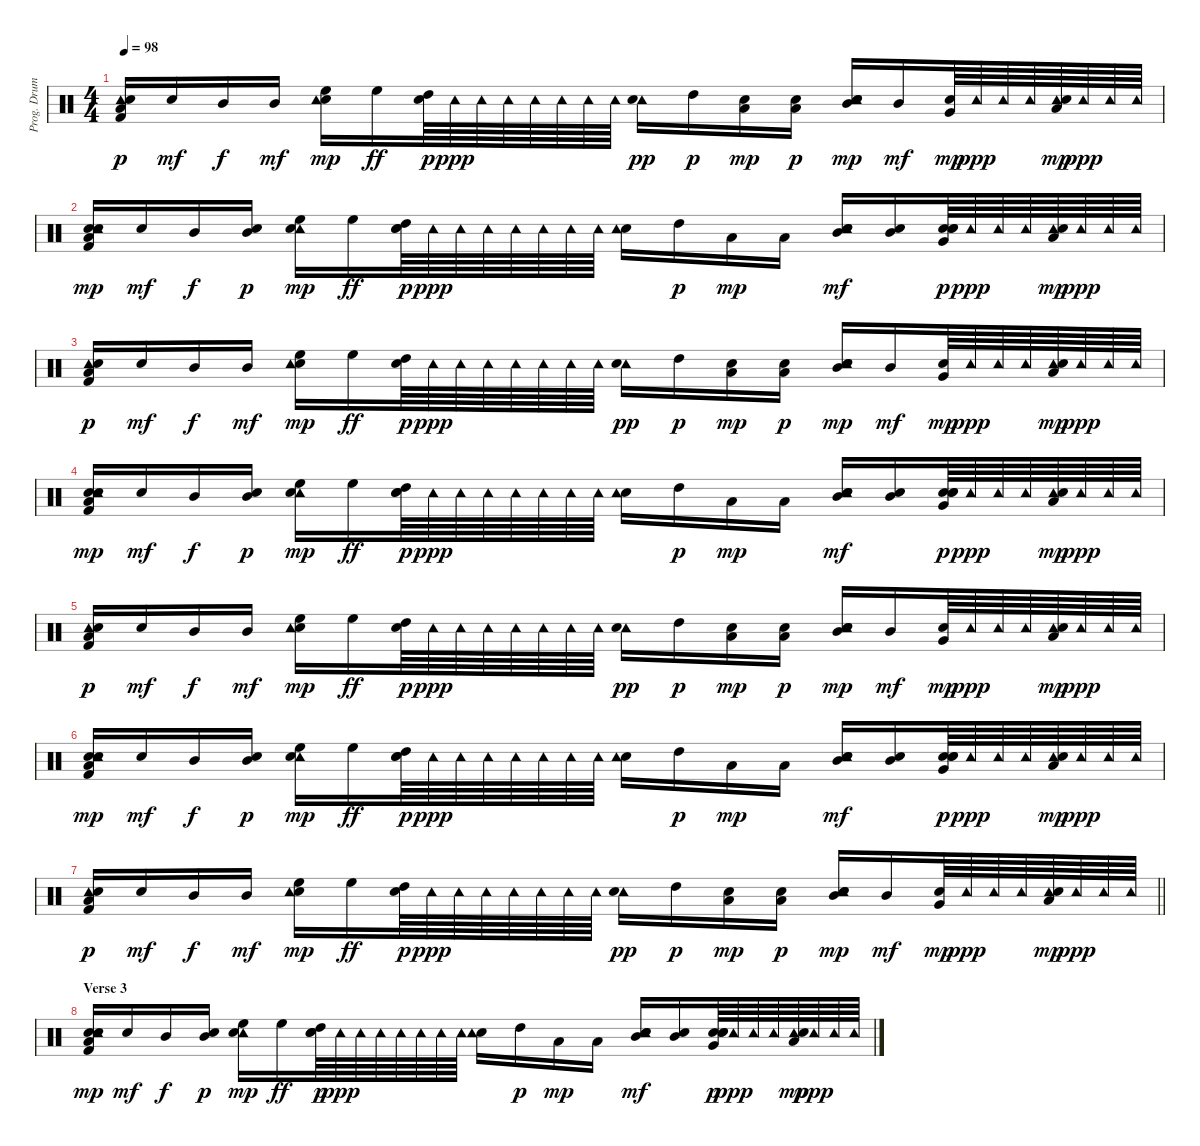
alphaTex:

\track ("Prog. Drums" "Prog. Drum") {instrument percussion}
\staff {score}
\articulation defaults
\ts (4 4)
\tempo 98
\clef neutral
\ks c
("Tambourine (hit)" "Snare (hit)" "Low Floor Tom (hit)" "Kick (hit) 2").16{dy p} "Snare (hit)".16{dy mf} "Mid Tom (hit)".16{dy f} "Mid Tom (hit)".16{dy mf} ("Snare (hit) 2" "High Floor Tom (hit)" "Tambourine (hit)").16{dy mp} "High Floor Tom (hit)".16{dy ff} ("High Tom (hit)" "Snare (hit)").64{dy p} "Tambourine (hit)".64{dy ppp} "Tambourine (hit)".64 "Tambourine (hit)".64 "Tambourine (hit)".64 "Tambourine (hit)".64 "Tambourine (hit)".64 "Tambourine (hit)".64 ("Tambourine (hit)" "Snare (hit) 2").16{dy pp} "High Tom (hit)".16{dy p} ("Snare (hit)" "Low Tom (hit)").16{dy mp} ("Low Tom (hit)" "Snare (hit)").16{dy p} ("Snare (hit) 2" "Mid Tom (hit)" "Snare (hit)" "Tambourine (hit)").16{dy mp} "Mid Tom (hit)".16{dy mf} ("Snare (hit)" "Very Low Tom (hit)").64{dy mp} "Tambourine (hit)".64{dy ppp} "Tambourine (hit)".64 "Tambourine (hit)".64 ("Tambourine (hit)" "Snare (hit) 2" "Low Tom (hit)").64{dy mp} "Tambourine (hit)".64{dy ppp} "Tambourine (hit)".64 "Tambourine (hit)".64 |
("Snare (hit)" "Snare (hit)" "Tambourine (hit)" "Kick (hit) 2" "Low Floor Tom (hit)").16{dy mp} "Snare (hit)".16{dy mf} "Mid Tom (hit)".16{dy f} ("Mid Tom (hit)" "Snare (hit)").16{dy p} ("Tambourine (hit)" "High Floor Tom (hit)" "Snare (hit) 2").16{dy mp} "High Floor Tom (hit)".16{dy ff} ("High Tom (hit)" "Snare (hit)" "Snare (hit)").64{dy p} "Tambourine (hit)".64{dy ppp} "Tambourine (hit)".64 "Tambourine (hit)".64 "Tambourine (hit)".64 "Tambourine (hit)".64 "Tambourine (hit)".64 "Tambourine (hit)".64 ("Snare (hit) 2" "Tambourine (hit)").16 "High Tom (hit)".16{dy p} "Low Tom (hit)".16{dy mp} "Low Tom (hit)".16 ("Tambourine (hit)" "Snare (hit)" "Snare (hit) 2" "Mid Tom (hit)").16{dy mf} ("Snare (hit) 2" "Mid Tom (hit)").16 ("Snare (hit) 2" "Very Low Tom (hit)" "Snare (hit)" "Snare (hit)").64{dy p} "Tambourine (hit)".64{dy ppp} "Tambourine (hit)".64 "Tambourine (hit)".64 ("Tambourine (hit)" "Snare (hit) 2" "Low Tom (hit)").64{dy mp} "Tambourine (hit)".64{dy ppp} "Tambourine (hit)".64 "Tambourine (hit)".64 |
("Tambourine (hit)" "Snare (hit)" "Low Floor Tom (hit)" "Kick (hit) 2").16{dy p} "Snare (hit)".16{dy mf} "Mid Tom (hit)".16{dy f} "Mid Tom (hit)".16{dy mf} ("Snare (hit) 2" "High Floor Tom (hit)" "Tambourine (hit)").16{dy mp} "High Floor Tom (hit)".16{dy ff} ("High Tom (hit)" "Snare (hit)").64{dy p} "Tambourine (hit)".64{dy ppp} "Tambourine (hit)".64 "Tambourine (hit)".64 "Tambourine (hit)".64 "Tambourine (hit)".64 "Tambourine (hit)".64 "Tambourine (hit)".64 ("Tambourine (hit)" "Snare (hit) 2").16{dy pp} "High Tom (hit)".16{dy p} ("Snare (hit)" "Low Tom (hit)").16{dy mp} ("Low Tom (hit)" "Snare (hit)").16{dy p} ("Snare (hit) 2" "Mid Tom (hit)" "Snare (hit)" "Tambourine (hit)").16{dy mp} "Mid Tom (hit)".16{dy mf} ("Snare (hit)" "Very Low Tom (hit)").64{dy mp} "Tambourine (hit)".64{dy ppp} "Tambourine (hit)".64 "Tambourine (hit)".64 ("Tambourine (hit)" "Snare (hit) 2" "Low Tom (hit)").64{dy mp} "Tambourine (hit)".64{dy ppp} "Tambourine (hit)".64 "Tambourine (hit)".64 |
("Snare (hit)" "Snare (hit)" "Tambourine (hit)" "Kick (hit) 2" "Low Floor Tom (hit)").16{dy mp} "Snare (hit)".16{dy mf} "Mid Tom (hit)".16{dy f} ("Mid Tom (hit)" "Snare (hit)").16{dy p} ("Tambourine (hit)" "High Floor Tom (hit)" "Snare (hit) 2").16{dy mp} "High Floor Tom (hit)".16{dy ff} ("High Tom (hit)" "Snare (hit)" "Snare (hit)").64{dy p} "Tambourine (hit)".64{dy ppp} "Tambourine (hit)".64 "Tambourine (hit)".64 "Tambourine (hit)".64 "Tambourine (hit)".64 "Tambourine (hit)".64 "Tambourine (hit)".64 ("Snare (hit) 2" "Tambourine (hit)").16 "High Tom (hit)".16{dy p} "Low Tom (hit)".16{dy mp} "Low Tom (hit)".16 ("Tambourine (hit)" "Snare (hit)" "Snare (hit) 2" "Mid Tom (hit)").16{dy mf} ("Snare (hit) 2" "Mid Tom (hit)").16 ("Snare (hit) 2" "Very Low Tom (hit)" "Snare (hit)" "Snare (hit)").64{dy p} "Tambourine (hit)".64{dy ppp} "Tambourine (hit)".64 "Tambourine (hit)".64 ("Tambourine (hit)" "Snare (hit) 2" "Low Tom (hit)").64{dy mp} "Tambourine (hit)".64{dy ppp} "Tambourine (hit)".64 "Tambourine (hit)".64 |
("Tambourine (hit)" "Snare (hit)" "Low Floor Tom (hit)" "Kick (hit) 2").16{dy p} "Snare (hit)".16{dy mf} "Mid Tom (hit)".16{dy f} "Mid Tom (hit)".16{dy mf} ("Snare (hit) 2" "High Floor Tom (hit)" "Tambourine (hit)").16{dy mp} "High Floor Tom (hit)".16{dy ff} ("High Tom (hit)" "Snare (hit)").64{dy p} "Tambourine (hit)".64{dy ppp} "Tambourine (hit)".64 "Tambourine (hit)".64 "Tambourine (hit)".64 "Tambourine (hit)".64 "Tambourine (hit)".64 "Tambourine (hit)".64 ("Tambourine (hit)" "Snare (hit) 2").16{dy pp} "High Tom (hit)".16{dy p} ("Snare (hit)" "Low Tom (hit)").16{dy mp} ("Low Tom (hit)" "Snare (hit)").16{dy p} ("Snare (hit) 2" "Mid Tom (hit)" "Snare (hit)" "Tambourine (hit)").16{dy mp} "Mid Tom (hit)".16{dy mf} ("Snare (hit)" "Very Low Tom (hit)").64{dy mp} "Tambourine (hit)".64{dy ppp} "Tambourine (hit)".64 "Tambourine (hit)".64 ("Tambourine (hit)" "Snare (hit) 2" "Low Tom (hit)").64{dy mp} "Tambourine (hit)".64{dy ppp} "Tambourine (hit)".64 "Tambourine (hit)".64 |
("Snare (hit)" "Snare (hit)" "Tambourine (hit)" "Kick (hit) 2" "Low Floor Tom (hit)").16{dy mp} "Snare (hit)".16{dy mf} "Mid Tom (hit)".16{dy f} ("Mid Tom (hit)" "Snare (hit)").16{dy p} ("Tambourine (hit)" "High Floor Tom (hit)" "Snare (hit) 2").16{dy mp} "High Floor Tom (hit)".16{dy ff} ("High Tom (hit)" "Snare (hit)" "Snare (hit)").64{dy p} "Tambourine (hit)".64{dy ppp} "Tambourine (hit)".64 "Tambourine (hit)".64 "Tambourine (hit)".64 "Tambourine (hit)".64 "Tambourine (hit)".64 "Tambourine (hit)".64 ("Snare (hit) 2" "Tambourine (hit)").16 "High Tom (hit)".16{dy p} "Low Tom (hit)".16{dy mp} "Low Tom (hit)".16 ("Tambourine (hit)" "Snare (hit)" "Snare (hit) 2" "Mid Tom (hit)").16{dy mf} ("Snare (hit) 2" "Mid Tom (hit)").16 ("Snare (hit) 2" "Very Low Tom (hit)" "Snare (hit)" "Snare (hit)").64{dy p} "Tambourine (hit)".64{dy ppp} "Tambourine (hit)".64 "Tambourine (hit)".64 ("Tambourine (hit)" "Snare (hit) 2" "Low Tom (hit)").64{dy mp} "Tambourine (hit)".64{dy ppp} "Tambourine (hit)".64 "Tambourine (hit)".64 |
\barLineRight lightlight
("Tambourine (hit)" "Snare (hit)" "Low Floor Tom (hit)" "Kick (hit) 2").16{dy p} "Snare (hit)".16{dy mf} "Mid Tom (hit)".16{dy f} "Mid Tom (hit)".16{dy mf} ("Snare (hit) 2" "High Floor Tom (hit)" "Tambourine (hit)").16{dy mp} "High Floor Tom (hit)".16{dy ff} ("High Tom (hit)" "Snare (hit)").64{dy p} "Tambourine (hit)".64{dy ppp} "Tambourine (hit)".64 "Tambourine (hit)".64 "Tambourine (hit)".64 "Tambourine (hit)".64 "Tambourine (hit)".64 "Tambourine (hit)".64 ("Tambourine (hit)" "Snare (hit) 2").16{dy pp} "High Tom (hit)".16{dy p} ("Snare (hit)" "Low Tom (hit)").16{dy mp} ("Low Tom (hit)" "Snare (hit)").16{dy p} ("Snare (hit) 2" "Mid Tom (hit)" "Snare (hit)" "Tambourine (hit)").16{dy mp} "Mid Tom (hit)".16{dy mf} ("Snare (hit)" "Very Low Tom (hit)").64{dy mp} "Tambourine (hit)".64{dy ppp} "Tambourine (hit)".64 "Tambourine (hit)".64 ("Tambourine (hit)" "Snare (hit) 2" "Low Tom (hit)").64{dy mp} "Tambourine (hit)".64{dy ppp} "Tambourine (hit)".64 "Tambourine (hit)".64 |
\section ("" "Verse 3")
("Snare (hit)" "Snare (hit)" "Tambourine (hit)" "Kick (hit) 2" "Low Floor Tom (hit)").16{dy mp} "Snare (hit)".16{dy mf} "Mid Tom (hit)".16{dy f} ("Mid Tom (hit)" "Snare (hit)").16{dy p} ("Tambourine (hit)" "High Floor Tom (hit)" "Snare (hit) 2").16{dy mp} "High Floor Tom (hit)".16{dy ff} ("High Tom (hit)" "Snare (hit)" "Snare (hit)").64{dy p} "Tambourine (hit)".64{dy ppp} "Tambourine (hit)".64 "Tambourine (hit)".64 "Tambourine (hit)".64 "Tambourine (hit)".64 "Tambourine (hit)".64 "Tambourine (hit)".64 ("Snare (hit) 2" "Tambourine (hit)").16 "High Tom (hit)".16{dy p} "Low Tom (hit)".16{dy mp} "Low Tom (hit)".16 ("Tambourine (hit)" "Snare (hit)" "Snare (hit) 2" "Mid Tom (hit)").16{dy mf} ("Snare (hit) 2" "Mid Tom (hit)").16 ("Snare (hit) 2" "Very Low Tom (hit)" "Snare (hit)" "Snare (hit)").64{dy p} "Tambourine (hit)".64{dy ppp} "Tambourine (hit)".64 "Tambourine (hit)".64 ("Tambourine (hit)" "Snare (hit) 2" "Low Tom (hit)").64{dy mp} "Tambourine (hit)".64{dy ppp} "Tambourine (hit)".64 "Tambourine (hit)".64
